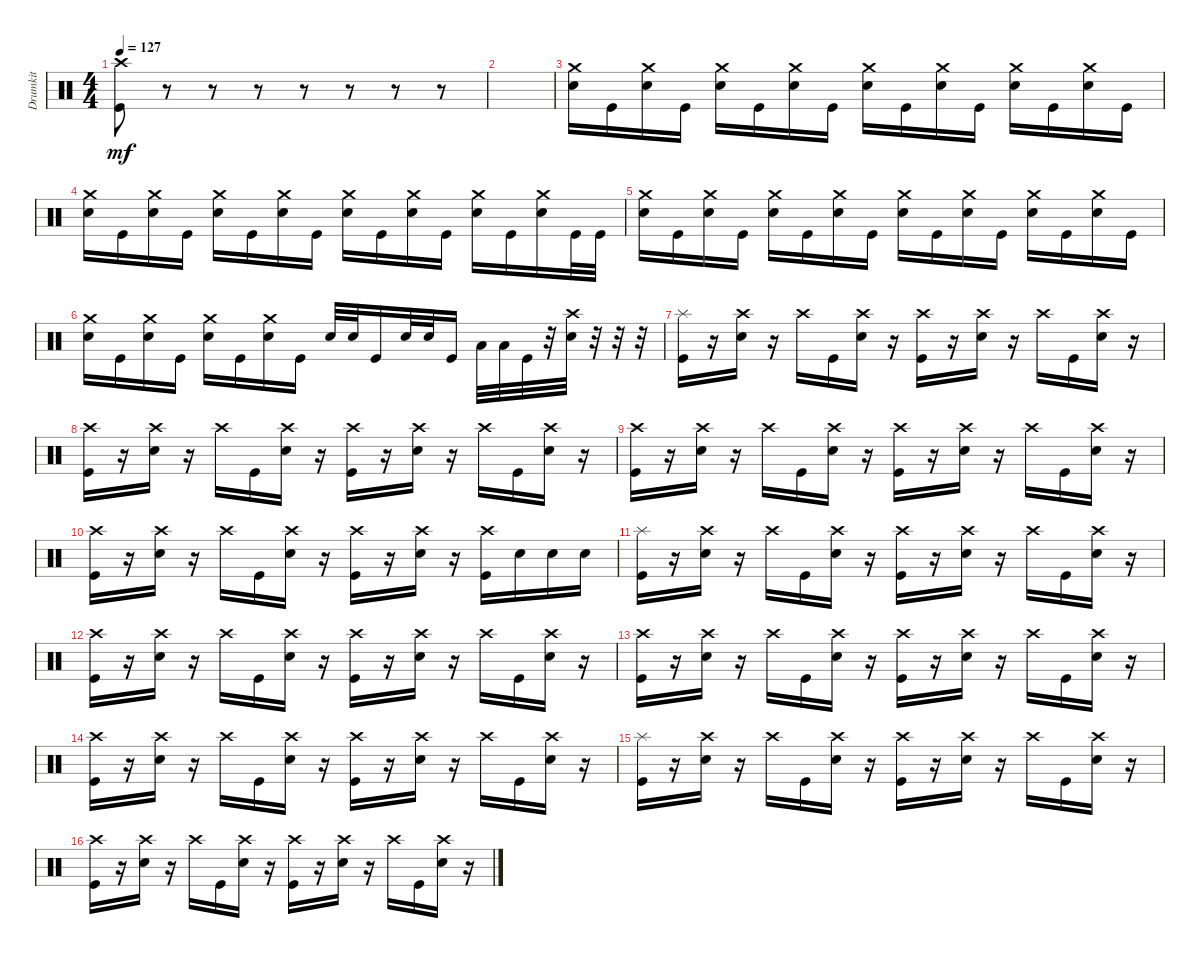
\track ("Drumkit" "Drumkit") {instrument percussion}
\staff {score}
\articulation defaults
\ts (4 4)
\tempo 127
\clef neutral
\ks c
("Kick (hit)" "Crash high (hit)").8{dy mf} r.8 r.8 r.8 r.8 r.8 r.8 r.8 |
|
("Snare (hit) 2" "Crash medium (hit)").16 "Kick (hit)".16 ("Snare (hit) 2" "Crash medium (hit)").16 "Kick (hit)".16 ("Snare (hit) 2" "Crash medium (hit)").16 "Kick (hit)".16 ("Snare (hit) 2" "Crash medium (hit)").16 "Kick (hit)".16 ("Snare (hit) 2" "Crash medium (hit)").16 "Kick (hit)".16 ("Snare (hit) 2" "Crash medium (hit)").16 "Kick (hit)".16 ("Snare (hit) 2" "Crash medium (hit)").16 "Kick (hit)".16 ("Snare (hit) 2" "Crash medium (hit)").16 "Kick (hit)".16 |
("Snare (hit) 2" "Crash medium (hit)").16 "Kick (hit)".16 ("Snare (hit) 2" "Crash medium (hit)").16 "Kick (hit)".16 ("Snare (hit) 2" "Crash medium (hit)").16 "Kick (hit)".16 ("Snare (hit) 2" "Crash medium (hit)").16 "Kick (hit)".16 ("Snare (hit) 2" "Crash medium (hit)").16 "Kick (hit)".16 ("Snare (hit) 2" "Crash medium (hit)").16 "Kick (hit)".16 ("Snare (hit) 2" "Crash medium (hit)").16 "Kick (hit)".16 ("Snare (hit) 2" "Crash medium (hit)").16 "Kick (hit)".32 "Kick (hit)".32 |
("Snare (hit) 2" "Crash medium (hit)").16 "Kick (hit)".16 ("Snare (hit) 2" "Crash medium (hit)").16 "Kick (hit)".16 ("Snare (hit) 2" "Crash medium (hit)").16 "Kick (hit)".16 ("Snare (hit) 2" "Crash medium (hit)").16 "Kick (hit)".16 ("Snare (hit) 2" "Crash medium (hit)").16 "Kick (hit)".16 ("Snare (hit) 2" "Crash medium (hit)").16 "Kick (hit)".16 ("Snare (hit) 2" "Crash medium (hit)").16 "Kick (hit)".16 ("Snare (hit) 2" "Crash medium (hit)").16 "Kick (hit)".16 |
("Snare (hit) 2" "Crash medium (hit)").16 "Kick (hit)".16 ("Snare (hit) 2" "Crash medium (hit)").16 "Kick (hit)".16 ("Snare (hit) 2" "Crash medium (hit)").16 "Kick (hit)".16 ("Snare (hit) 2" "Crash medium (hit)").16 "Kick (hit)".16 "Snare (hit) 2".32 "Snare (hit) 2".32 "Kick (hit)".16 "Snare (hit) 2".32 "Snare (hit) 2".32 "Kick (hit)".16 "Low Tom (hit)".32 "Low Tom (hit)".32 "Kick (hit)".32 r.32 ("Snare (hit) 2" "Crash high (hit)").32 r.32 r.32 r.32 |
("Kick (hit)" "Splash (hit)").16 r.16 ("Snare (hit) 2" "Crash high (hit)").16 r.16 "Crash high (hit)".16 "Kick (hit)".16 ("Snare (hit) 2" "Crash high (hit)").16 r.16 ("Kick (hit)" "Crash high (hit)").16 r.16 ("Snare (hit) 2" "Crash high (hit)").16 r.16 "Crash high (hit)".16 "Kick (hit)".16 ("Snare (hit) 2" "Crash high (hit)").16 r.16 |
("Kick (hit)" "Crash high (hit)").16 r.16 ("Snare (hit) 2" "Crash high (hit)").16 r.16 "Crash high (hit)".16 "Kick (hit)".16 ("Snare (hit) 2" "Crash high (hit)").16 r.16 ("Kick (hit)" "Crash high (hit)").16 r.16 ("Snare (hit) 2" "Crash high (hit)").16 r.16 "Crash high (hit)".16 "Kick (hit)".16 ("Snare (hit) 2" "Crash high (hit)").16 r.16 |
("Kick (hit)" "Crash high (hit)").16 r.16 ("Snare (hit) 2" "Crash high (hit)").16 r.16 "Crash high (hit)".16 "Kick (hit)".16 ("Snare (hit) 2" "Crash high (hit)").16 r.16 ("Kick (hit)" "Crash high (hit)").16 r.16 ("Snare (hit) 2" "Crash high (hit)").16 r.16 "Crash high (hit)".16 "Kick (hit)".16 ("Snare (hit) 2" "Crash high (hit)").16 r.16 |
("Kick (hit)" "Crash high (hit)").16 r.16 ("Snare (hit) 2" "Crash high (hit)").16 r.16 "Crash high (hit)".16 "Kick (hit)".16 ("Snare (hit) 2" "Crash high (hit)").16 r.16 ("Kick (hit)" "Crash high (hit)").16 r.16 ("Snare (hit) 2" "Crash high (hit)").16 r.16 ("Crash high (hit)" "Kick (hit)").16 "Snare (hit) 2".16 "Snare (hit) 2".16 "Snare (hit) 2".16 |
("Kick (hit)" "Splash (hit)").16 r.16 ("Snare (hit) 2" "Crash high (hit)").16 r.16 "Crash high (hit)".16 "Kick (hit)".16 ("Snare (hit) 2" "Crash high (hit)").16 r.16 ("Kick (hit)" "Crash high (hit)").16 r.16 ("Snare (hit) 2" "Crash high (hit)").16 r.16 "Crash high (hit)".16 "Kick (hit)".16 ("Snare (hit) 2" "Crash high (hit)").16 r.16 |
("Kick (hit)" "Crash high (hit)").16 r.16 ("Snare (hit) 2" "Crash high (hit)").16 r.16 "Crash high (hit)".16 "Kick (hit)".16 ("Snare (hit) 2" "Crash high (hit)").16 r.16 ("Kick (hit)" "Crash high (hit)").16 r.16 ("Snare (hit) 2" "Crash high (hit)").16 r.16 "Crash high (hit)".16 "Kick (hit)".16 ("Snare (hit) 2" "Crash high (hit)").16 r.16 |
("Kick (hit)" "Crash high (hit)").16 r.16 ("Snare (hit) 2" "Crash high (hit)").16 r.16 "Crash high (hit)".16 "Kick (hit)".16 ("Snare (hit) 2" "Crash high (hit)").16 r.16 ("Kick (hit)" "Crash high (hit)").16 r.16 ("Snare (hit) 2" "Crash high (hit)").16 r.16 "Crash high (hit)".16 "Kick (hit)".16 ("Snare (hit) 2" "Crash high (hit)").16 r.16 |
("Kick (hit)" "Crash high (hit)").16 r.16 ("Snare (hit) 2" "Crash high (hit)").16 r.16 "Crash high (hit)".16 "Kick (hit)".16 ("Snare (hit) 2" "Crash high (hit)").16 r.16 ("Kick (hit)" "Crash high (hit)").16 r.16 ("Snare (hit) 2" "Crash high (hit)").16 r.16 "Crash high (hit)".16 "Kick (hit)".16 ("Snare (hit) 2" "Crash high (hit)").16 r.16 |
("Kick (hit)" "Splash (hit)").16 r.16 ("Snare (hit) 2" "Crash high (hit)").16 r.16 "Crash high (hit)".16 "Kick (hit)".16 ("Snare (hit) 2" "Crash high (hit)").16 r.16 ("Kick (hit)" "Crash high (hit)").16 r.16 ("Snare (hit) 2" "Crash high (hit)").16 r.16 "Crash high (hit)".16 "Kick (hit)".16 ("Snare (hit) 2" "Crash high (hit)").16 r.16 |
("Kick (hit)" "Crash high (hit)").16 r.16 ("Snare (hit) 2" "Crash high (hit)").16 r.16 "Crash high (hit)".16 "Kick (hit)".16 ("Snare (hit) 2" "Crash high (hit)").16 r.16 ("Kick (hit)" "Crash high (hit)").16 r.16 ("Snare (hit) 2" "Crash high (hit)").16 r.16 "Crash high (hit)".16 "Kick (hit)".16 ("Snare (hit) 2" "Crash high (hit)").16 r.16
